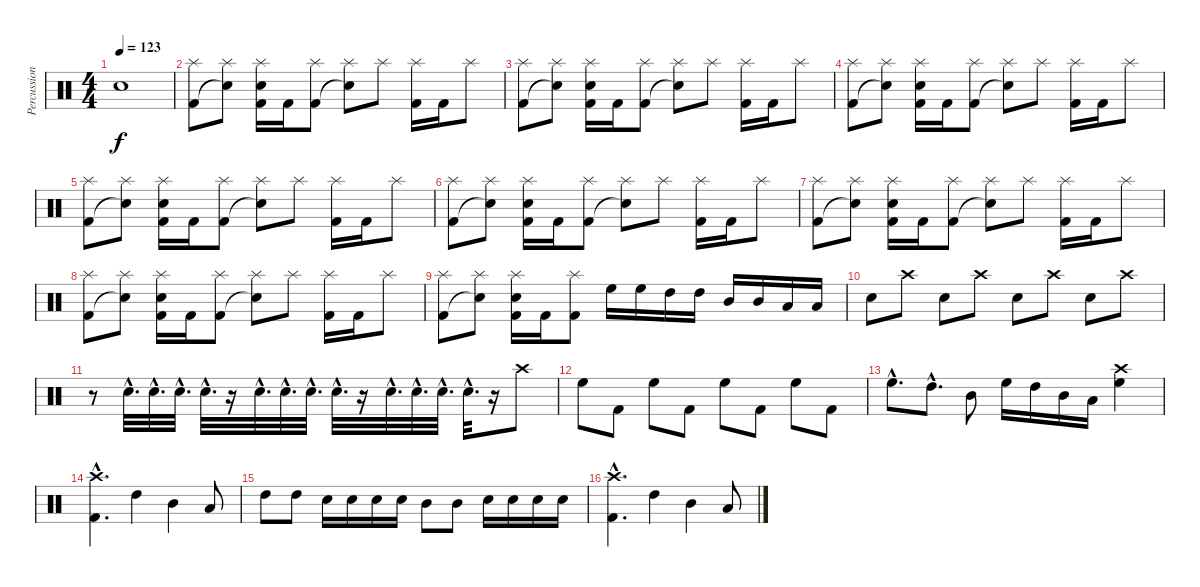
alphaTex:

\track ("Percussion" "Percussion") {instrument percussion}
\staff {score}
\articulation defaults
\ts (4 4)
\tempo 123
\clef neutral
\ks c "Electric Snare (hit)".1{dy f}
|
("Kick (hit) 2" "Splash (hit)").8 ("Snare (hit)"{t} "Splash (hit)").8 ("Electric Snare (hit)" "Kick (hit) 2" "Splash (hit)").16 "Kick (hit) 2".16 ("Kick (hit) 2" "Splash (hit)").8 ("Snare (hit)"{t} "Splash (hit)").8 "Splash (hit)".8 ("Kick (hit) 2" "Splash (hit)").16 "Kick (hit) 2".16 "Splash (hit)".8 |
("Kick (hit) 2" "Splash (hit)").8 ("Snare (hit)"{t} "Splash (hit)").8 ("Electric Snare (hit)" "Kick (hit) 2" "Splash (hit)").16 "Kick (hit) 2".16 ("Kick (hit) 2" "Splash (hit)").8 ("Snare (hit)"{t} "Splash (hit)").8 "Splash (hit)".8 ("Kick (hit) 2" "Splash (hit)").16 "Kick (hit) 2".16 "Splash (hit)".8 |
("Kick (hit) 2" "Splash (hit)").8 ("Snare (hit)"{t} "Splash (hit)").8 ("Electric Snare (hit)" "Kick (hit) 2" "Splash (hit)").16 "Kick (hit) 2".16 ("Kick (hit) 2" "Splash (hit)").8 ("Snare (hit)"{t} "Splash (hit)").8 "Splash (hit)".8 ("Kick (hit) 2" "Splash (hit)").16 "Kick (hit) 2".16 "Splash (hit)".8 |
("Kick (hit) 2" "Splash (hit)").8 ("Snare (hit)"{t} "Splash (hit)").8 ("Electric Snare (hit)" "Kick (hit) 2" "Splash (hit)").16 "Kick (hit) 2".16 ("Kick (hit) 2" "Splash (hit)").8 ("Snare (hit)"{t} "Splash (hit)").8 "Splash (hit)".8 ("Kick (hit) 2" "Splash (hit)").16 "Kick (hit) 2".16 "Splash (hit)".8 |
("Kick (hit) 2" "Splash (hit)").8 ("Snare (hit)"{t} "Splash (hit)").8 ("Electric Snare (hit)" "Kick (hit) 2" "Splash (hit)").16 "Kick (hit) 2".16 ("Kick (hit) 2" "Splash (hit)").8 ("Snare (hit)"{t} "Splash (hit)").8 "Splash (hit)".8 ("Kick (hit) 2" "Splash (hit)").16 "Kick (hit) 2".16 "Splash (hit)".8 |
("Kick (hit) 2" "Splash (hit)").8 ("Snare (hit)"{t} "Splash (hit)").8 ("Electric Snare (hit)" "Kick (hit) 2" "Splash (hit)").16 "Kick (hit) 2".16 ("Kick (hit) 2" "Splash (hit)").8 ("Snare (hit)"{t} "Splash (hit)").8 "Splash (hit)".8 ("Kick (hit) 2" "Splash (hit)").16 "Kick (hit) 2".16 "Splash (hit)".8 |
("Kick (hit) 2" "Splash (hit)").8 ("Snare (hit)"{t} "Splash (hit)").8 ("Electric Snare (hit)" "Kick (hit) 2" "Splash (hit)").16 "Kick (hit) 2".16 ("Kick (hit) 2" "Splash (hit)").8 ("Snare (hit)"{t} "Splash (hit)").8 "Splash (hit)".8 ("Kick (hit) 2" "Splash (hit)").16 "Kick (hit) 2".16 "Splash (hit)".8 |
("Kick (hit) 2" "Splash (hit)").8 ("Snare (hit)"{t} "Splash (hit)").8 ("Electric Snare (hit)" "Kick (hit) 2" "Splash (hit)").16 "Kick (hit) 2".16 ("Kick (hit) 2" "Splash (hit)").8 "High Floor Tom (hit)".16 "High Floor Tom (hit)".16 "High Tom (hit)".16 "High Tom (hit)".16 "Mid Tom (hit)".16 "Mid Tom (hit)".16 "Low Tom (hit)".16 "Low Tom (hit)".16 |
"Electric Snare (hit)".8 "Crash high (hit)".8 "Electric Snare (hit)".8 "Crash high (hit)".8 "Electric Snare (hit)".8 "Crash high (hit)".8 "Electric Snare (hit)".8 "Crash high (hit)".8 |
r.8 "Electric Snare (hit)"{hac}.32{d} "Electric Snare (hit)"{hac}.32{d} "Electric Snare (hit)"{hac}.32{d} "Electric Snare (hit)"{hac}.32{d} r.16 "Electric Snare (hit)"{hac}.32{d} "Electric Snare (hit)"{hac}.32{d} "Electric Snare (hit)"{hac}.32{d} "Electric Snare (hit)"{hac}.32{d} r.16 "Electric Snare (hit)"{hac}.32{d} "Electric Snare (hit)"{hac}.32{d} "Electric Snare (hit)"{hac}.32{d} "Electric Snare (hit)"{hac}.32{d} r.16 "Crash high (hit)".8 |
"High Floor Tom (hit)".8 "Kick (hit) 2".8 "High Floor Tom (hit)".8 "Kick (hit) 2".8 "High Floor Tom (hit)".8 "Kick (hit) 2".8 "High Floor Tom (hit)".8 "Kick (hit) 2".8 |
"High Floor Tom (hit)"{hac}.8{d} "High Tom (hit)"{hac}.8{d} "Mid Tom (hit)".8 "High Floor Tom (hit)".16 "High Tom (hit)".16 "Mid Tom (hit)".16 "Low Tom (hit)".16 ("Crash high (hit)" "High Floor Tom (hit)").4 |
("Crash high (hit)"{hac} "Kick (hit) 2"{hac}).4{d} "High Tom (hit)".4 "Mid Tom (hit)".4 "Low Tom (hit)".8 |
"High Tom (hit)".8 "High Tom (hit)".8 "Electric Snare (hit)".16 "Electric Snare (hit)".16 "Electric Snare (hit)".16 "Electric Snare (hit)".16 "Mid Tom (hit)".8 "Mid Tom (hit)".8 "Electric Snare (hit)".16 "Electric Snare (hit)".16 "Electric Snare (hit)".16 "Electric Snare (hit)".16 |
("Crash high (hit)"{hac} "Kick (hit) 2"{hac}).4{d} "High Tom (hit)".4 "Mid Tom (hit)".4 "Low Tom (hit)".8
